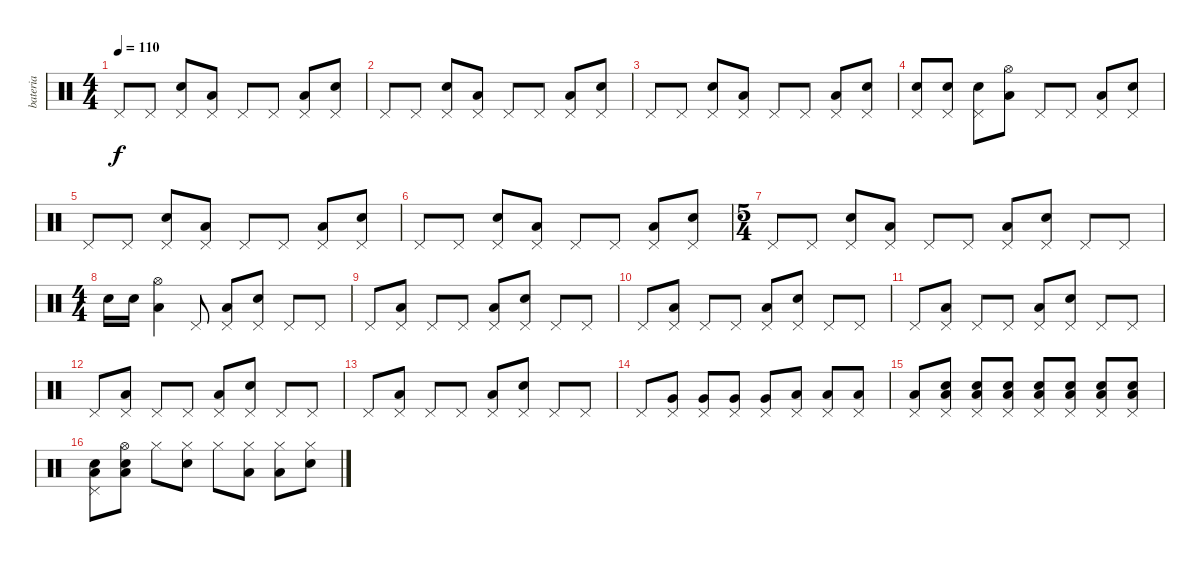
\track ("bateria" "bateria") {instrument percussion}
\staff {score}
\articulation defaults
\ts (4 4)
\tempo 110
\clef neutral
\ks c "Pedal Hi-Hat (hit)".8{dy f} "Pedal Hi-Hat (hit)".8
("Pedal Hi-Hat (hit)" "Electric Snare (hit)").8 ("Pedal Hi-Hat (hit)" "Low Floor Tom (hit)").8 "Pedal Hi-Hat (hit)".8 "Pedal Hi-Hat (hit)".8 ("Pedal Hi-Hat (hit)" "Low Floor Tom (hit)").8 ("Pedal Hi-Hat (hit)" "Electric Snare (hit)").8 |
"Pedal Hi-Hat (hit)".8 "Pedal Hi-Hat (hit)".8 ("Pedal Hi-Hat (hit)" "Electric Snare (hit)").8 ("Pedal Hi-Hat (hit)" "Low Floor Tom (hit)").8 "Pedal Hi-Hat (hit)".8 "Pedal Hi-Hat (hit)".8 ("Pedal Hi-Hat (hit)" "Low Floor Tom (hit)").8 ("Pedal Hi-Hat (hit)" "Electric Snare (hit)").8 |
"Pedal Hi-Hat (hit)".8 "Pedal Hi-Hat (hit)".8 ("Pedal Hi-Hat (hit)" "Electric Snare (hit)").8 ("Pedal Hi-Hat (hit)" "Low Floor Tom (hit)").8 "Pedal Hi-Hat (hit)".8 "Pedal Hi-Hat (hit)".8 ("Pedal Hi-Hat (hit)" "Low Floor Tom (hit)").8 ("Pedal Hi-Hat (hit)" "Electric Snare (hit)").8 |
("Pedal Hi-Hat (hit)" "Electric Snare (hit)").8 ("Pedal Hi-Hat (hit)" "Electric Snare (hit)").8 ("Pedal Hi-Hat (hit)" "Electric Snare (hit)").8 ("Hi-Hat (open)" "Low Floor Tom (hit)").8 "Pedal Hi-Hat (hit)".8 "Pedal Hi-Hat (hit)".8 ("Pedal Hi-Hat (hit)" "Low Floor Tom (hit)").8 ("Pedal Hi-Hat (hit)" "Electric Snare (hit)").8 |
"Pedal Hi-Hat (hit)".8 "Pedal Hi-Hat (hit)".8 ("Pedal Hi-Hat (hit)" "Electric Snare (hit)").8 ("Pedal Hi-Hat (hit)" "Low Floor Tom (hit)").8 "Pedal Hi-Hat (hit)".8 "Pedal Hi-Hat (hit)".8 ("Pedal Hi-Hat (hit)" "Low Floor Tom (hit)").8 ("Pedal Hi-Hat (hit)" "Electric Snare (hit)").8 |
"Pedal Hi-Hat (hit)".8 "Pedal Hi-Hat (hit)".8 ("Pedal Hi-Hat (hit)" "Electric Snare (hit)").8 ("Pedal Hi-Hat (hit)" "Low Floor Tom (hit)").8 "Pedal Hi-Hat (hit)".8 "Pedal Hi-Hat (hit)".8 ("Pedal Hi-Hat (hit)" "Low Floor Tom (hit)").8 ("Pedal Hi-Hat (hit)" "Electric Snare (hit)").8 |
\ts (5 4)
"Pedal Hi-Hat (hit)".8 "Pedal Hi-Hat (hit)".8 ("Pedal Hi-Hat (hit)" "Electric Snare (hit)").8 ("Pedal Hi-Hat (hit)" "Low Floor Tom (hit)").8 "Pedal Hi-Hat (hit)".8 "Pedal Hi-Hat (hit)".8 ("Pedal Hi-Hat (hit)" "Low Floor Tom (hit)").8 ("Pedal Hi-Hat (hit)" "Electric Snare (hit)").8 "Pedal Hi-Hat (hit)".8 "Pedal Hi-Hat (hit)".8 |
\ts (4 4)
"Electric Snare (hit)".16 "Electric Snare (hit)".16 ("Hi-Hat (open)" "Low Floor Tom (hit)").4 "Pedal Hi-Hat (hit)".8 ("Pedal Hi-Hat (hit)" "Low Floor Tom (hit)").8 ("Pedal Hi-Hat (hit)" "Electric Snare (hit)").8 "Pedal Hi-Hat (hit)".8 "Pedal Hi-Hat (hit)".8 |
"Pedal Hi-Hat (hit)".8 ("Pedal Hi-Hat (hit)" "Low Floor Tom (hit)").8 "Pedal Hi-Hat (hit)".8 "Pedal Hi-Hat (hit)".8 ("Pedal Hi-Hat (hit)" "Low Floor Tom (hit)").8 ("Pedal Hi-Hat (hit)" "Electric Snare (hit)").8 "Pedal Hi-Hat (hit)".8 "Pedal Hi-Hat (hit)".8 |
"Pedal Hi-Hat (hit)".8 ("Pedal Hi-Hat (hit)" "Low Floor Tom (hit)").8 "Pedal Hi-Hat (hit)".8 "Pedal Hi-Hat (hit)".8 ("Pedal Hi-Hat (hit)" "Low Floor Tom (hit)").8 ("Pedal Hi-Hat (hit)" "Electric Snare (hit)").8 "Pedal Hi-Hat (hit)".8 "Pedal Hi-Hat (hit)".8 |
"Pedal Hi-Hat (hit)".8 ("Pedal Hi-Hat (hit)" "Low Floor Tom (hit)").8 "Pedal Hi-Hat (hit)".8 "Pedal Hi-Hat (hit)".8 ("Pedal Hi-Hat (hit)" "Low Floor Tom (hit)").8 ("Pedal Hi-Hat (hit)" "Electric Snare (hit)").8 "Pedal Hi-Hat (hit)".8 "Pedal Hi-Hat (hit)".8 |
"Pedal Hi-Hat (hit)".8 ("Pedal Hi-Hat (hit)" "Low Floor Tom (hit)").8 "Pedal Hi-Hat (hit)".8 "Pedal Hi-Hat (hit)".8 ("Pedal Hi-Hat (hit)" "Low Floor Tom (hit)").8 ("Pedal Hi-Hat (hit)" "Electric Snare (hit)").8 "Pedal Hi-Hat (hit)".8 "Pedal Hi-Hat (hit)".8 |
"Pedal Hi-Hat (hit)".8 ("Pedal Hi-Hat (hit)" "Low Floor Tom (hit)").8 "Pedal Hi-Hat (hit)".8 "Pedal Hi-Hat (hit)".8 ("Pedal Hi-Hat (hit)" "Low Floor Tom (hit)").8 ("Pedal Hi-Hat (hit)" "Electric Snare (hit)").8 "Pedal Hi-Hat (hit)".8 "Pedal Hi-Hat (hit)".8 |
"Pedal Hi-Hat (hit)".8 ("Pedal Hi-Hat (hit)" "Very Low Tom (hit)").8 ("Pedal Hi-Hat (hit)" "Very Low Tom (hit)").8 ("Pedal Hi-Hat (hit)" "Very Low Tom (hit)").8 ("Pedal Hi-Hat (hit)" "Very Low Tom (hit)").8 ("Pedal Hi-Hat (hit)" "Low Floor Tom (hit)").8 ("Pedal Hi-Hat (hit)" "Low Floor Tom (hit)").8 ("Pedal Hi-Hat (hit)" "Low Floor Tom (hit)").8 |
("Pedal Hi-Hat (hit)" "Low Floor Tom (hit)").8 ("Pedal Hi-Hat (hit)" "Electric Snare (hit)" "Low Floor Tom (hit)").8 ("Pedal Hi-Hat (hit)" "Electric Snare (hit)" "Low Floor Tom (hit)").8 ("Pedal Hi-Hat (hit)" "Electric Snare (hit)" "Low Floor Tom (hit)").8 ("Pedal Hi-Hat (hit)" "Electric Snare (hit)" "Low Floor Tom (hit)").8 ("Pedal Hi-Hat (hit)" "Electric Snare (hit)" "Low Floor Tom (hit)").8 ("Pedal Hi-Hat (hit)" "Electric Snare (hit)" "Low Floor Tom (hit)").8 ("Pedal Hi-Hat (hit)" "Electric Snare (hit)" "Low Floor Tom (hit)").8 |
("Pedal Hi-Hat (hit)" "Electric Snare (hit)" "Low Floor Tom (hit)").8 ("Hi-Hat (open)" "Electric Snare (hit)" "Low Floor Tom (hit)").8 "Hi-Hat (closed)".8 ("Hi-Hat (closed)" "Electric Snare (hit)").8 "Hi-Hat (closed)".8 ("Hi-Hat (closed)" "Low Floor Tom (hit)").8 ("Hi-Hat (closed)" "Low Floor Tom (hit)").8 ("Hi-Hat (closed)" "Electric Snare (hit)").8
